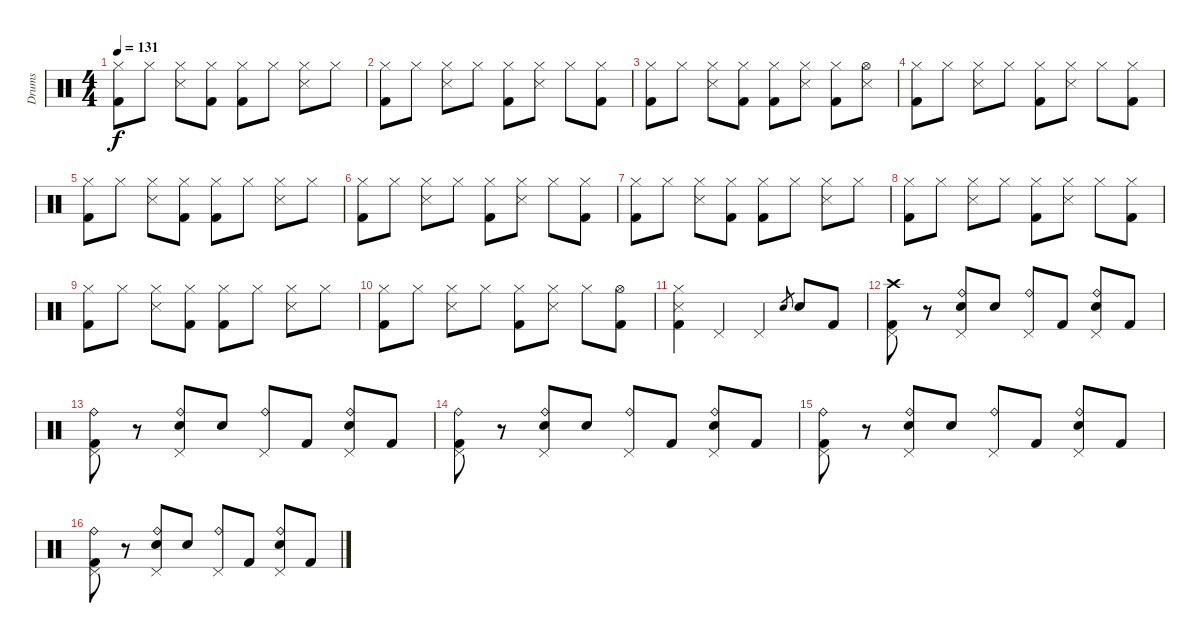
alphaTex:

\track ("Drums" "Drums") {instrument percussion}
\staff {score}
\articulation defaults
\ts (4 4)
\tempo 131
\clef neutral
\ks c
("Hi-Hat (closed)" "Kick (hit) 2").8{dy f} "Hi-Hat (closed)".8 ("Snare (side stick) 3" "Hi-Hat (closed)").8 ("Hi-Hat (closed)" "Kick (hit) 2").8 ("Hi-Hat (closed)" "Kick (hit) 2").8 "Hi-Hat (closed)".8 ("Snare (side stick) 3" "Hi-Hat (closed)").8 "Hi-Hat (closed)".8 |
("Hi-Hat (closed)" "Kick (hit) 2").8 "Hi-Hat (closed)".8 ("Snare (side stick) 3" "Hi-Hat (closed)").8 "Hi-Hat (closed)".8 ("Hi-Hat (closed)" "Kick (hit) 2").8 ("Snare (side stick) 3" "Hi-Hat (closed)").8 "Hi-Hat (closed)".8 ("Hi-Hat (closed)" "Kick (hit) 2").8 |
("Hi-Hat (closed)" "Kick (hit) 2").8 "Hi-Hat (closed)".8 ("Snare (side stick) 3" "Hi-Hat (closed)").8 ("Hi-Hat (closed)" "Kick (hit) 2").8 ("Hi-Hat (closed)" "Kick (hit) 2").8 ("Snare (side stick) 3" "Hi-Hat (closed)").8 ("Hi-Hat (closed)" "Kick (hit) 2").8 ("Snare (side stick) 3" "Hi-Hat (open)").8 |
("Hi-Hat (closed)" "Kick (hit) 2").8 "Hi-Hat (closed)".8 ("Snare (side stick) 3" "Hi-Hat (closed)").8 "Hi-Hat (closed)".8 ("Hi-Hat (closed)" "Kick (hit) 2").8 ("Snare (side stick) 3" "Hi-Hat (closed)").8 "Hi-Hat (closed)".8 ("Hi-Hat (closed)" "Kick (hit) 2").8 |
("Hi-Hat (closed)" "Kick (hit) 2").8 "Hi-Hat (closed)".8 ("Snare (side stick) 3" "Hi-Hat (closed)").8 ("Hi-Hat (closed)" "Kick (hit) 2").8 ("Hi-Hat (closed)" "Kick (hit) 2").8 "Hi-Hat (closed)".8 ("Snare (side stick) 3" "Hi-Hat (closed)").8 "Hi-Hat (closed)".8 |
("Hi-Hat (closed)" "Kick (hit) 2").8 "Hi-Hat (closed)".8 ("Snare (side stick) 3" "Hi-Hat (closed)").8 "Hi-Hat (closed)".8 ("Hi-Hat (closed)" "Kick (hit) 2").8 ("Snare (side stick) 3" "Hi-Hat (closed)").8 "Hi-Hat (closed)".8 ("Hi-Hat (closed)" "Kick (hit) 2").8 |
("Hi-Hat (closed)" "Kick (hit) 2").8 "Hi-Hat (closed)".8 ("Snare (side stick) 3" "Hi-Hat (closed)").8 ("Hi-Hat (closed)" "Kick (hit) 2").8 ("Hi-Hat (closed)" "Kick (hit) 2").8 "Hi-Hat (closed)".8 ("Snare (side stick) 3" "Hi-Hat (closed)").8 "Hi-Hat (closed)".8 |
("Hi-Hat (closed)" "Kick (hit) 2").8 "Hi-Hat (closed)".8 ("Snare (side stick) 3" "Hi-Hat (closed)").8 "Hi-Hat (closed)".8 ("Hi-Hat (closed)" "Kick (hit) 2").8 ("Snare (side stick) 3" "Hi-Hat (closed)").8 "Hi-Hat (closed)".8 ("Hi-Hat (closed)" "Kick (hit) 2").8 |
("Hi-Hat (closed)" "Kick (hit) 2").8 "Hi-Hat (closed)".8 ("Snare (side stick) 3" "Hi-Hat (closed)").8 ("Hi-Hat (closed)" "Kick (hit) 2").8 ("Hi-Hat (closed)" "Kick (hit) 2").8 "Hi-Hat (closed)".8 ("Snare (side stick) 3" "Hi-Hat (closed)").8 "Hi-Hat (closed)".8 |
("Hi-Hat (closed)" "Kick (hit) 2").8 "Hi-Hat (closed)".8 ("Snare (side stick) 3" "Hi-Hat (closed)").8 "Hi-Hat (closed)".8 ("Hi-Hat (closed)" "Kick (hit) 2").8 ("Snare (side stick) 3" "Hi-Hat (closed)").8 "Hi-Hat (closed)".8 ("Hi-Hat (open)" "Kick (hit) 2").8 |
("Snare (side stick) 3" "Hi-Hat (closed)" "Kick (hit) 2").4 "Pedal Hi-Hat (hit)".4 "Pedal Hi-Hat (hit)".4 "Snare (hit) 2".8{gr} "Snare (hit) 2".8 "Kick (hit) 2".8 |
("Crash high (hit)" "Pedal Hi-Hat (hit)" "Kick (hit) 2").8 r.8 ("Ride (bell)" "Pedal Hi-Hat (hit)" "Snare (hit) 2").8 "Snare (hit) 2".8 ("Ride (bell)" "Pedal Hi-Hat (hit)").8 "Kick (hit) 2".8 ("Ride (bell)" "Pedal Hi-Hat (hit)" "Snare (hit) 2").8 "Kick (hit) 2".8 |
("Ride (bell)" "Pedal Hi-Hat (hit)" "Kick (hit) 2").8 r.8 ("Ride (bell)" "Pedal Hi-Hat (hit)" "Snare (hit) 2").8 "Snare (hit) 2".8 ("Ride (bell)" "Pedal Hi-Hat (hit)").8 "Kick (hit) 2".8 ("Ride (bell)" "Pedal Hi-Hat (hit)" "Snare (hit) 2").8 "Kick (hit) 2".8 |
("Ride (bell)" "Pedal Hi-Hat (hit)" "Kick (hit) 2").8 r.8 ("Ride (bell)" "Pedal Hi-Hat (hit)" "Snare (hit) 2").8 "Snare (hit) 2".8 ("Ride (bell)" "Pedal Hi-Hat (hit)").8 "Kick (hit) 2".8 ("Ride (bell)" "Pedal Hi-Hat (hit)" "Snare (hit) 2").8 "Kick (hit) 2".8 |
("Ride (bell)" "Pedal Hi-Hat (hit)" "Kick (hit) 2").8 r.8 ("Ride (bell)" "Pedal Hi-Hat (hit)" "Snare (hit) 2").8 "Snare (hit) 2".8 ("Ride (bell)" "Pedal Hi-Hat (hit)").8 "Kick (hit) 2".8 ("Ride (bell)" "Pedal Hi-Hat (hit)" "Snare (hit) 2").8 "Kick (hit) 2".8 |
("Ride (bell)" "Pedal Hi-Hat (hit)" "Kick (hit) 2").8 r.8 ("Ride (bell)" "Pedal Hi-Hat (hit)" "Snare (hit) 2").8 "Snare (hit) 2".8 ("Ride (bell)" "Pedal Hi-Hat (hit)").8 "Kick (hit) 2".8 ("Ride (bell)" "Pedal Hi-Hat (hit)" "Snare (hit) 2").8 "Kick (hit) 2".8
